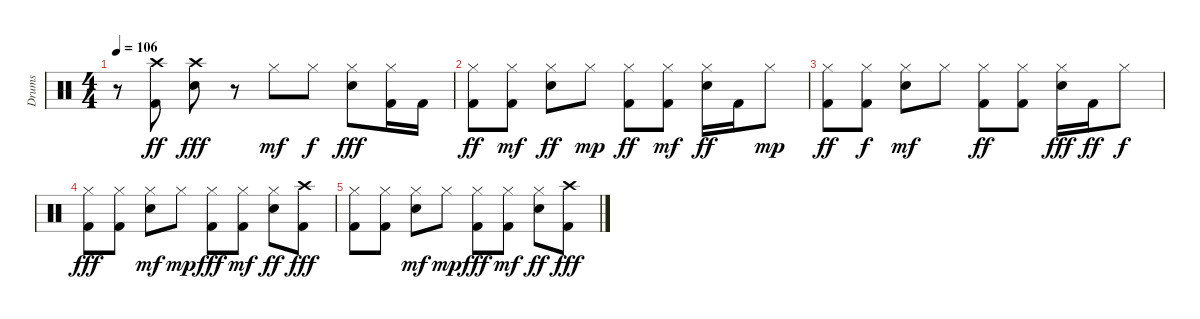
\track ("Drums" "Drums") {instrument percussion}
\staff {score}
\articulation defaults
\ts (4 4)
\tempo 106
\clef neutral
\ks c
r.8{dy fff} ("Crash high (hit)" "Kick (hit) 2").8{dy ff} ("Crash high (hit)" "Snare (hit) 2").8{dy fff} r.8 "Hi-Hat (closed)".8{dy mf} "Hi-Hat (closed)".8{dy f} ("Snare (hit) 2" "Hi-Hat (closed)").8{dy fff} ("Kick (hit) 2" "Hi-Hat (closed)").16 "Kick (hit) 2".16 |
("Kick (hit) 2" "Hi-Hat (closed)").8{dy ff} ("Kick (hit) 2" "Hi-Hat (closed)").8{dy mf} ("Hi-Hat (closed)" "Snare (hit) 2").8{dy ff} "Hi-Hat (closed)".8{dy mp} ("Hi-Hat (closed)" "Kick (hit) 2").8{dy ff} ("Hi-Hat (closed)" "Kick (hit) 2").8{dy mf} ("Hi-Hat (closed)" "Snare (hit) 2").16{dy ff} "Kick (hit) 2".16 "Hi-Hat (closed)".8{dy mp} |
("Kick (hit) 2" "Hi-Hat (closed)").8{dy ff volume 3} ("Kick (hit) 2" "Hi-Hat (closed)").8{dy f} ("Snare (hit) 2" "Hi-Hat (closed)").8{dy mf} "Hi-Hat (closed)".8 ("Hi-Hat (closed)" "Kick (hit) 2").8{dy ff} ("Hi-Hat (closed)" "Kick (hit) 2").8 ("Snare (hit) 2" "Hi-Hat (closed)").16{dy fff} "Kick (hit) 2".16{dy ff} "Hi-Hat (closed)".8{dy f} |
("Hi-Hat (closed)" "Kick (hit) 2").8{dy fff volume 0} ("Hi-Hat (closed)" "Kick (hit) 2").8 ("Snare (hit) 2" "Hi-Hat (closed)").8{dy mf} "Hi-Hat (closed)".8{dy mp} ("Hi-Hat (closed)" "Kick (hit) 2").8{dy fff} ("Hi-Hat (closed)" "Kick (hit) 2").8{dy mf} ("Hi-Hat (closed)" "Snare (hit) 2").8{dy ff} ("Crash high (hit)" "Kick (hit) 2").8{dy fff} |
("Hi-Hat (closed)" "Kick (hit) 2").8 ("Hi-Hat (closed)" "Kick (hit) 2").8 ("Snare (hit) 2" "Hi-Hat (closed)").8{dy mf} "Hi-Hat (closed)".8{dy mp} ("Hi-Hat (closed)" "Kick (hit) 2").8{dy fff} ("Hi-Hat (closed)" "Kick (hit) 2").8{dy mf} ("Hi-Hat (closed)" "Snare (hit) 2").8{dy ff} ("Crash high (hit)" "Kick (hit) 2").8{dy fff}
